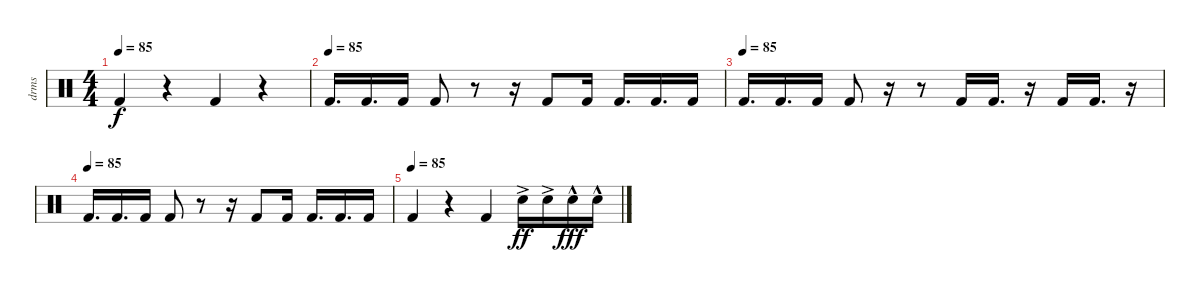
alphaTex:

\track ("drms" "drms") {instrument percussion}
\staff {score}
\articulation defaults
\ts (4 4)
\tempo 85
\clef neutral
\ks c "Kick (hit) 2".4{dy f}
r.4 "Kick (hit) 2".4 r.4 |
\tempo (85)
"Kick (hit) 2".16{d} "Kick (hit) 2".16{d} "Kick (hit) 2".16 "Kick (hit) 2".8 r.8 r.16 "Kick (hit) 2".8 "Kick (hit) 2".16 "Kick (hit) 2".16{d} "Kick (hit) 2".16{d} "Kick (hit) 2".16 |
\tempo (85)
"Kick (hit) 2".16{d} "Kick (hit) 2".16{d} "Kick (hit) 2".16 "Kick (hit) 2".8 r.16 r.8 "Kick (hit) 2".16 "Kick (hit) 2".16{d} r.16 "Kick (hit) 2".16 "Kick (hit) 2".16{d} r.16 |
\tempo (85)
"Kick (hit) 2".16{d} "Kick (hit) 2".16{d} "Kick (hit) 2".16 "Kick (hit) 2".8 r.8 r.16 "Kick (hit) 2".8 "Kick (hit) 2".16 "Kick (hit) 2".16{d} "Kick (hit) 2".16{d} "Kick (hit) 2".16 |
\tempo (85)
"Kick (hit) 2".4 r.4 "Kick (hit) 2".4 "Electric Snare (hit)"{ac}.16{dy ff} "Electric Snare (hit)"{ac}.16 "Electric Snare (hit)"{hac}.16{dy fff} "Electric Snare (hit)"{hac}.16
